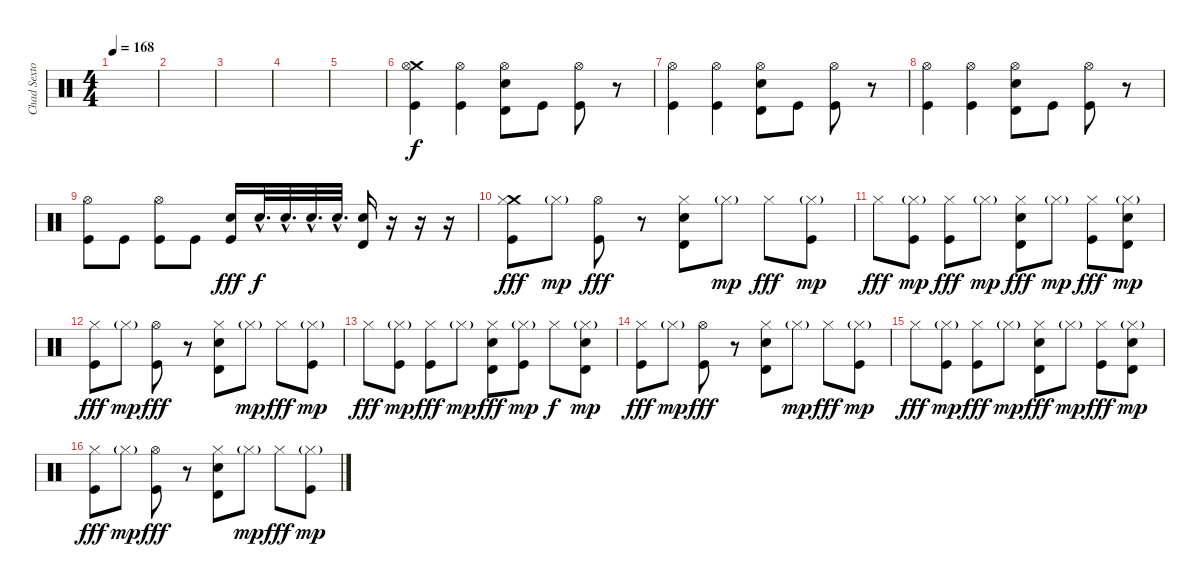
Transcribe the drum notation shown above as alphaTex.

\track ("Chad Sexton" "Chad Sexto") {instrument percussion}
\staff {score}
\articulation defaults
\ts (4 4)
\tempo 168
\clef neutral
\ks c
|
|
|
|
|
("Crash medium (hit)" "Hi-Hat (open)" "Kick (hit)").4 ("Hi-Hat (open)" "Kick (hit)").4 ("Hi-Hat (open)" "Electric Snare (hit)" "Timbale high (hit)").8 "Kick (hit)".8 ("Hi-Hat (open)" "Kick (hit)").8 r.8 |
("Hi-Hat (open)" "Kick (hit)").4 ("Hi-Hat (open)" "Kick (hit)").4 ("Hi-Hat (open)" "Electric Snare (hit)" "Timbale high (hit)").8 "Kick (hit)".8 ("Hi-Hat (open)" "Kick (hit)").8 r.8 |
("Hi-Hat (open)" "Kick (hit)").4 ("Hi-Hat (open)" "Kick (hit)").4 ("Hi-Hat (open)" "Electric Snare (hit)" "Timbale high (hit)").8 "Kick (hit)".8 ("Hi-Hat (open)" "Kick (hit)").8 r.8 |
("Hi-Hat (open)" "Kick (hit)").8 "Kick (hit)".8 ("Hi-Hat (open)" "Kick (hit)").8 "Kick (hit)".8{dy f} ("Electric Snare (hit)" "Kick (hit)").16{dy fff} "Electric Snare (hit)"{hac}.32{d dy f} "Electric Snare (hit)"{hac}.32{d} "Electric Snare (hit)"{hac}.32{d} "Electric Snare (hit)"{hac}.32{d} ("Electric Snare (hit)" "Timbale high (hit)").16 r.16 r.16 r.16 |
("Crash medium (hit)" "Kick (hit)" "Hi-Hat (closed)").8{dy fff} "Hi-Hat (closed)"{g}.8{dy mp} ("Kick (hit)" "Hi-Hat (open)").8{dy fff} r.8 ("Electric Snare (hit)" "Timbale high (hit)" "Hi-Hat (closed)").8 "Hi-Hat (closed)"{g}.8{dy mp} "Hi-Hat (closed)".8{dy fff} ("Kick (hit)" "Hi-Hat (closed)"{g}).8{dy mp} |
"Hi-Hat (closed)".8{dy fff} ("Kick (hit)" "Hi-Hat (closed)"{g}).8{dy mp} ("Kick (hit)" "Hi-Hat (closed)").8{dy fff} "Hi-Hat (closed)"{g}.8{dy mp} ("Electric Snare (hit)" "Timbale high (hit)" "Hi-Hat (closed)").8{dy fff} "Hi-Hat (closed)"{g}.8{dy mp} ("Kick (hit)" "Hi-Hat (closed)").8{dy fff} ("Electric Snare (hit)" "Timbale high (hit)" "Hi-Hat (closed)"{g}).8{dy mp} |
("Kick (hit)" "Hi-Hat (closed)").8{dy fff} "Hi-Hat (closed)"{g}.8{dy mp} ("Kick (hit)" "Hi-Hat (open)").8{dy fff} r.8 ("Electric Snare (hit)" "Timbale high (hit)" "Hi-Hat (closed)").8 "Hi-Hat (closed)"{g}.8{dy mp} "Hi-Hat (closed)".8{dy fff} ("Kick (hit)" "Hi-Hat (closed)"{g}).8{dy mp} |
"Hi-Hat (closed)".8{dy fff} ("Kick (hit)" "Hi-Hat (closed)"{g}).8{dy mp} ("Kick (hit)" "Hi-Hat (closed)").8{dy fff} "Hi-Hat (closed)"{g}.8{dy mp} ("Electric Snare (hit)" "Timbale high (hit)" "Hi-Hat (closed)").8{dy fff} ("Kick (hit)" "Hi-Hat (closed)"{g}).8{dy mp} "Hi-Hat (closed)".8{dy f} ("Electric Snare (hit)" "Timbale high (hit)" "Hi-Hat (closed)"{g}).8{dy mp} |
("Kick (hit)" "Hi-Hat (closed)").8{dy fff} "Hi-Hat (closed)"{g}.8{dy mp} ("Kick (hit)" "Hi-Hat (open)").8{dy fff} r.8 ("Electric Snare (hit)" "Timbale high (hit)" "Hi-Hat (closed)").8 "Hi-Hat (closed)"{g}.8{dy mp} "Hi-Hat (closed)".8{dy fff} ("Kick (hit)" "Hi-Hat (closed)"{g}).8{dy mp} |
"Hi-Hat (closed)".8{dy fff} ("Kick (hit)" "Hi-Hat (closed)"{g}).8{dy mp} ("Kick (hit)" "Hi-Hat (closed)").8{dy fff} "Hi-Hat (closed)"{g}.8{dy mp} ("Electric Snare (hit)" "Timbale high (hit)" "Hi-Hat (closed)").8{dy fff} "Hi-Hat (closed)"{g}.8{dy mp} ("Kick (hit)" "Hi-Hat (closed)").8{dy fff} ("Electric Snare (hit)" "Timbale high (hit)" "Hi-Hat (closed)"{g}).8{dy mp} |
("Kick (hit)" "Hi-Hat (closed)").8{dy fff} "Hi-Hat (closed)"{g}.8{dy mp} ("Kick (hit)" "Hi-Hat (open)").8{dy fff} r.8 ("Electric Snare (hit)" "Timbale high (hit)" "Hi-Hat (closed)").8 "Hi-Hat (closed)"{g}.8{dy mp} "Hi-Hat (closed)".8{dy fff} ("Kick (hit)" "Hi-Hat (closed)"{g}).8{dy mp}
